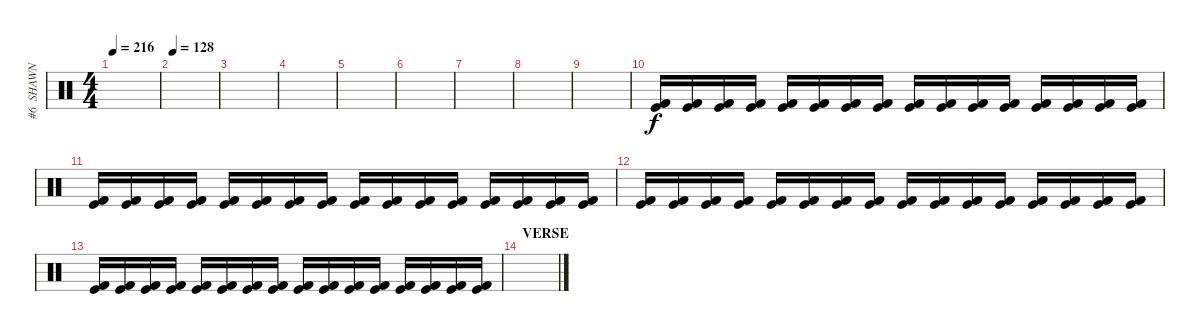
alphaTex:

\track ("#6  SHAWN \"CLOWN\" CRAHAN" "#6  SHAWN ") {instrument percussion}
\staff {score}
\articulation defaults
\ts (4 4)
\tempo 216
\clef neutral
\ks c
|
\tempo 128
|
|
|
\section ("" "")
|
|
|
|
|
("Kick (hit) 2" "Kick (hit)").16 ("Kick (hit) 2" "Kick (hit)").16 ("Kick (hit) 2" "Kick (hit)").16 ("Kick (hit) 2" "Kick (hit)").16 ("Kick (hit) 2" "Kick (hit)").16 ("Kick (hit) 2" "Kick (hit)").16 ("Kick (hit) 2" "Kick (hit)").16 ("Kick (hit) 2" "Kick (hit)").16 ("Kick (hit) 2" "Kick (hit)").16 ("Kick (hit) 2" "Kick (hit)").16 ("Kick (hit) 2" "Kick (hit)").16 ("Kick (hit) 2" "Kick (hit)").16 ("Kick (hit) 2" "Kick (hit)").16 ("Kick (hit) 2" "Kick (hit)").16 ("Kick (hit) 2" "Kick (hit)").16 ("Kick (hit) 2" "Kick (hit)").16 |
("Kick (hit) 2" "Kick (hit)").16 ("Kick (hit) 2" "Kick (hit)").16 ("Kick (hit) 2" "Kick (hit)").16 ("Kick (hit) 2" "Kick (hit)").16 ("Kick (hit) 2" "Kick (hit)").16 ("Kick (hit) 2" "Kick (hit)").16 ("Kick (hit) 2" "Kick (hit)").16 ("Kick (hit) 2" "Kick (hit)").16 ("Kick (hit) 2" "Kick (hit)").16 ("Kick (hit) 2" "Kick (hit)").16 ("Kick (hit) 2" "Kick (hit)").16 ("Kick (hit) 2" "Kick (hit)").16 ("Kick (hit) 2" "Kick (hit)").16 ("Kick (hit) 2" "Kick (hit)").16 ("Kick (hit) 2" "Kick (hit)").16 ("Kick (hit) 2" "Kick (hit)").16 |
("Kick (hit) 2" "Kick (hit)").16 ("Kick (hit) 2" "Kick (hit)").16 ("Kick (hit) 2" "Kick (hit)").16 ("Kick (hit) 2" "Kick (hit)").16 ("Kick (hit) 2" "Kick (hit)").16 ("Kick (hit) 2" "Kick (hit)").16 ("Kick (hit) 2" "Kick (hit)").16 ("Kick (hit) 2" "Kick (hit)").16 ("Kick (hit) 2" "Kick (hit)").16 ("Kick (hit) 2" "Kick (hit)").16 ("Kick (hit) 2" "Kick (hit)").16 ("Kick (hit) 2" "Kick (hit)").16 ("Kick (hit) 2" "Kick (hit)").16 ("Kick (hit) 2" "Kick (hit)").16 ("Kick (hit) 2" "Kick (hit)").16 ("Kick (hit) 2" "Kick (hit)").16 |
("Kick (hit) 2" "Kick (hit)").16 ("Kick (hit) 2" "Kick (hit)").16 ("Kick (hit) 2" "Kick (hit)").16 ("Kick (hit) 2" "Kick (hit)").16 ("Kick (hit) 2" "Kick (hit)").16 ("Kick (hit) 2" "Kick (hit)").16 ("Kick (hit) 2" "Kick (hit)").16 ("Kick (hit) 2" "Kick (hit)").16 ("Kick (hit) 2" "Kick (hit)").16 ("Kick (hit) 2" "Kick (hit)").16 ("Kick (hit) 2" "Kick (hit)").16 ("Kick (hit) 2" "Kick (hit)").16 ("Kick (hit) 2" "Kick (hit)").16 ("Kick (hit) 2" "Kick (hit)").16 ("Kick (hit) 2" "Kick (hit)").16 ("Kick (hit) 2" "Kick (hit)").16 |
\section ("" "VERSE")
